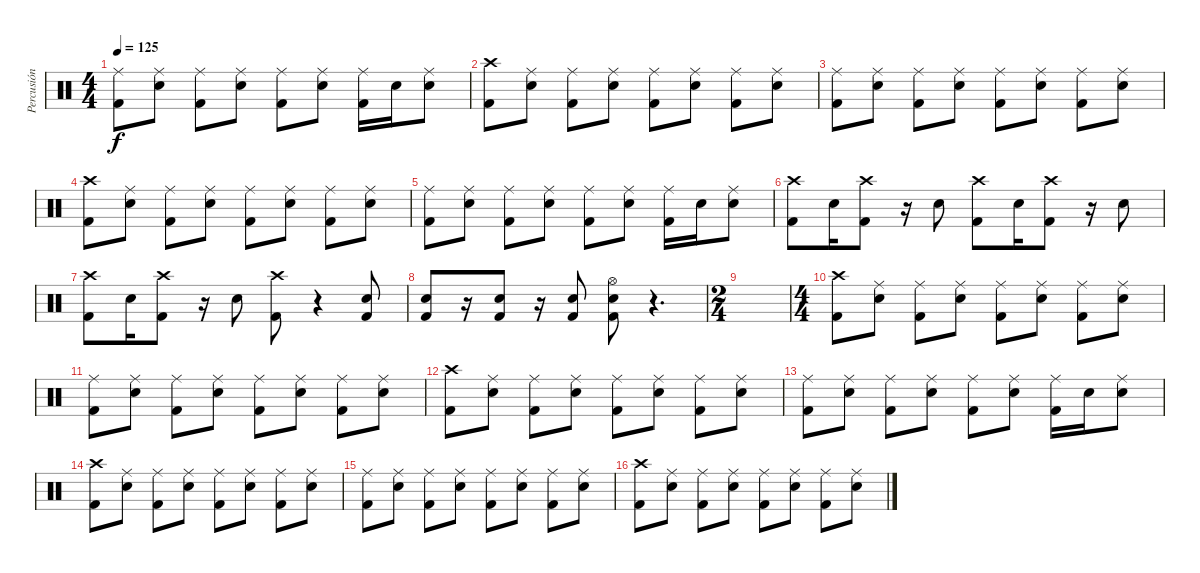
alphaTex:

\track ("Percusión" "Percusión") {instrument percussion}
\staff {score}
\articulation defaults
\ts (4 4)
\tempo 125
\clef neutral
\ks c
("Ride (middle)" "Kick (hit) 2").8{dy f} ("Ride (middle)" "Electric Snare (hit)").8 ("Ride (middle)" "Kick (hit) 2").8 ("Ride (middle)" "Electric Snare (hit)").8 ("Ride (middle)" "Kick (hit) 2").8 ("Ride (middle)" "Electric Snare (hit)").8 ("Ride (middle)" "Kick (hit) 2").16 "Electric Snare (hit)".16 ("Ride (middle)" "Electric Snare (hit)").8 |
("Crash high (hit)" "Kick (hit) 2").8 ("Ride (middle)" "Electric Snare (hit)").8 ("Ride (middle)" "Kick (hit) 2").8 ("Ride (middle)" "Electric Snare (hit)").8 ("Ride (middle)" "Kick (hit) 2").8 ("Ride (middle)" "Electric Snare (hit)").8 ("Ride (middle)" "Kick (hit) 2").8 ("Ride (middle)" "Electric Snare (hit)").8 |
("Ride (middle)" "Kick (hit) 2").8 ("Ride (middle)" "Electric Snare (hit)").8 ("Ride (middle)" "Kick (hit) 2").8 ("Ride (middle)" "Electric Snare (hit)").8 ("Ride (middle)" "Kick (hit) 2").8 ("Ride (middle)" "Electric Snare (hit)").8 ("Ride (middle)" "Kick (hit) 2").8 ("Ride (middle)" "Electric Snare (hit)").8 |
("Crash high (hit)" "Kick (hit) 2").8 ("Ride (middle)" "Electric Snare (hit)").8 ("Ride (middle)" "Kick (hit) 2").8 ("Ride (middle)" "Electric Snare (hit)").8 ("Ride (middle)" "Kick (hit) 2").8 ("Ride (middle)" "Electric Snare (hit)").8 ("Ride (middle)" "Kick (hit) 2").8 ("Ride (middle)" "Electric Snare (hit)").8 |
("Ride (middle)" "Kick (hit) 2").8 ("Ride (middle)" "Electric Snare (hit)").8 ("Ride (middle)" "Kick (hit) 2").8 ("Ride (middle)" "Electric Snare (hit)").8 ("Ride (middle)" "Kick (hit) 2").8 ("Ride (middle)" "Electric Snare (hit)").8 ("Ride (middle)" "Kick (hit) 2").16 "Electric Snare (hit)".16 ("Ride (middle)" "Electric Snare (hit)").8 |
("Crash high (hit)" "Kick (hit) 2").8 "Electric Snare (hit)".16 ("Crash high (hit)" "Kick (hit) 2").8 r.16 "Electric Snare (hit)".8 ("Crash high (hit)" "Kick (hit) 2").8 "Electric Snare (hit)".16 ("Crash high (hit)" "Kick (hit) 2").8 r.16 "Electric Snare (hit)".8 |
("Crash high (hit)" "Kick (hit) 2").8 "Electric Snare (hit)".16 ("Crash high (hit)" "Kick (hit) 2").8 r.16 "Electric Snare (hit)".8 ("Crash high (hit)" "Kick (hit) 2").8 r.4 ("Electric Snare (hit)" "Kick (hit) 2").8 |
("Electric Snare (hit)" "Kick (hit) 2").8 r.16 ("Electric Snare (hit)" "Kick (hit) 2").8 r.16 ("Electric Snare (hit)" "Kick (hit) 2").8 ("Kick (hit) 2" "Electric Snare (hit)" "Hi-Hat (open)").8 r.4{d} |
\ts (2 4)
|
\ts (4 4)
("Crash high (hit)" "Kick (hit) 2").8 ("Ride (middle)" "Electric Snare (hit)").8 ("Ride (middle)" "Kick (hit) 2").8 ("Ride (middle)" "Electric Snare (hit)").8 ("Ride (middle)" "Kick (hit) 2").8 ("Ride (middle)" "Electric Snare (hit)").8 ("Ride (middle)" "Kick (hit) 2").8 ("Ride (middle)" "Electric Snare (hit)").8 |
("Ride (middle)" "Kick (hit) 2").8 ("Ride (middle)" "Electric Snare (hit)").8 ("Ride (middle)" "Kick (hit) 2").8 ("Ride (middle)" "Electric Snare (hit)").8 ("Ride (middle)" "Kick (hit) 2").8 ("Ride (middle)" "Electric Snare (hit)").8 ("Ride (middle)" "Kick (hit) 2").8 ("Ride (middle)" "Electric Snare (hit)").8 |
("Crash high (hit)" "Kick (hit) 2").8 ("Ride (middle)" "Electric Snare (hit)").8 ("Ride (middle)" "Kick (hit) 2").8 ("Ride (middle)" "Electric Snare (hit)").8 ("Ride (middle)" "Kick (hit) 2").8 ("Ride (middle)" "Electric Snare (hit)").8 ("Ride (middle)" "Kick (hit) 2").8 ("Ride (middle)" "Electric Snare (hit)").8 |
("Ride (middle)" "Kick (hit) 2").8 ("Ride (middle)" "Electric Snare (hit)").8 ("Ride (middle)" "Kick (hit) 2").8 ("Ride (middle)" "Electric Snare (hit)").8 ("Ride (middle)" "Kick (hit) 2").8 ("Ride (middle)" "Electric Snare (hit)").8 ("Ride (middle)" "Kick (hit) 2").16 "Electric Snare (hit)".16 ("Ride (middle)" "Electric Snare (hit)").8 |
("Crash high (hit)" "Kick (hit) 2").8 ("Ride (middle)" "Electric Snare (hit)").8 ("Ride (middle)" "Kick (hit) 2").8 ("Ride (middle)" "Electric Snare (hit)").8 ("Ride (middle)" "Kick (hit) 2").8 ("Ride (middle)" "Electric Snare (hit)").8 ("Ride (middle)" "Kick (hit) 2").8 ("Ride (middle)" "Electric Snare (hit)").8 |
("Ride (middle)" "Kick (hit) 2").8 ("Ride (middle)" "Electric Snare (hit)").8 ("Ride (middle)" "Kick (hit) 2").8 ("Ride (middle)" "Electric Snare (hit)").8 ("Ride (middle)" "Kick (hit) 2").8 ("Ride (middle)" "Electric Snare (hit)").8 ("Ride (middle)" "Kick (hit) 2").8 ("Ride (middle)" "Electric Snare (hit)").8 |
("Crash high (hit)" "Kick (hit) 2").8 ("Ride (middle)" "Electric Snare (hit)").8 ("Ride (middle)" "Kick (hit) 2").8 ("Ride (middle)" "Electric Snare (hit)").8 ("Ride (middle)" "Kick (hit) 2").8 ("Ride (middle)" "Electric Snare (hit)").8 ("Ride (middle)" "Kick (hit) 2").8 ("Ride (middle)" "Electric Snare (hit)").8
